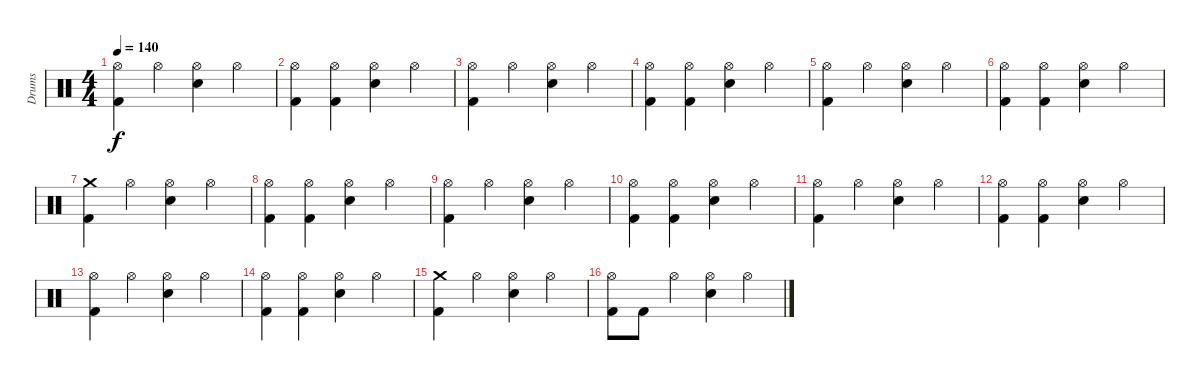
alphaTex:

\track ("Drums" "Drums") {instrument percussion}
\staff {score}
\articulation defaults
\ts (4 4)
\tempo 140
\clef neutral
\ks c
("Hi-Hat (open)" "Kick (hit) 2").4{dy f} "Hi-Hat (open)".4 ("Hi-Hat (open)" "Electric Snare (hit)").4 "Hi-Hat (open)".4 |
("Hi-Hat (open)" "Kick (hit) 2").4 ("Hi-Hat (open)" "Kick (hit) 2").4 ("Hi-Hat (open)" "Electric Snare (hit)").4 "Hi-Hat (open)".4 |
("Hi-Hat (open)" "Kick (hit) 2").4 "Hi-Hat (open)".4 ("Hi-Hat (open)" "Electric Snare (hit)").4 "Hi-Hat (open)".4 |
("Hi-Hat (open)" "Kick (hit) 2").4 ("Hi-Hat (open)" "Kick (hit) 2").4 ("Hi-Hat (open)" "Electric Snare (hit)").4 "Hi-Hat (open)".4 |
("Hi-Hat (open)" "Kick (hit) 2").4 "Hi-Hat (open)".4 ("Hi-Hat (open)" "Electric Snare (hit)").4 "Hi-Hat (open)".4 |
("Hi-Hat (open)" "Kick (hit) 2").4 ("Hi-Hat (open)" "Kick (hit) 2").4 ("Hi-Hat (open)" "Electric Snare (hit)").4 "Hi-Hat (open)".4 |
("Crash medium (hit)" "Kick (hit) 2").4 "Hi-Hat (open)".4 ("Hi-Hat (open)" "Electric Snare (hit)").4 "Hi-Hat (open)".4 |
("Hi-Hat (open)" "Kick (hit) 2").4 ("Hi-Hat (open)" "Kick (hit) 2").4 ("Hi-Hat (open)" "Electric Snare (hit)").4 "Hi-Hat (open)".4 |
("Hi-Hat (open)" "Kick (hit) 2").4 "Hi-Hat (open)".4 ("Hi-Hat (open)" "Electric Snare (hit)").4 "Hi-Hat (open)".4 |
("Hi-Hat (open)" "Kick (hit) 2").4 ("Hi-Hat (open)" "Kick (hit) 2").4 ("Hi-Hat (open)" "Electric Snare (hit)").4 "Hi-Hat (open)".4 |
("Hi-Hat (open)" "Kick (hit) 2").4 "Hi-Hat (open)".4 ("Hi-Hat (open)" "Electric Snare (hit)").4 "Hi-Hat (open)".4 |
("Hi-Hat (open)" "Kick (hit) 2").4 ("Hi-Hat (open)" "Kick (hit) 2").4 ("Hi-Hat (open)" "Electric Snare (hit)").4 "Hi-Hat (open)".4 |
("Hi-Hat (open)" "Kick (hit) 2").4 "Hi-Hat (open)".4 ("Hi-Hat (open)" "Electric Snare (hit)").4 "Hi-Hat (open)".4 |
("Hi-Hat (open)" "Kick (hit) 2").4 ("Hi-Hat (open)" "Kick (hit) 2").4 ("Hi-Hat (open)" "Electric Snare (hit)").4 "Hi-Hat (open)".4 |
("Crash medium (hit)" "Kick (hit) 2").4 "Hi-Hat (open)".4 ("Hi-Hat (open)" "Electric Snare (hit)").4 "Hi-Hat (open)".4 |
("Hi-Hat (open)" "Kick (hit) 2").8 "Kick (hit) 2".8 "Hi-Hat (open)".4 ("Hi-Hat (open)" "Electric Snare (hit)").4 "Hi-Hat (open)".4
